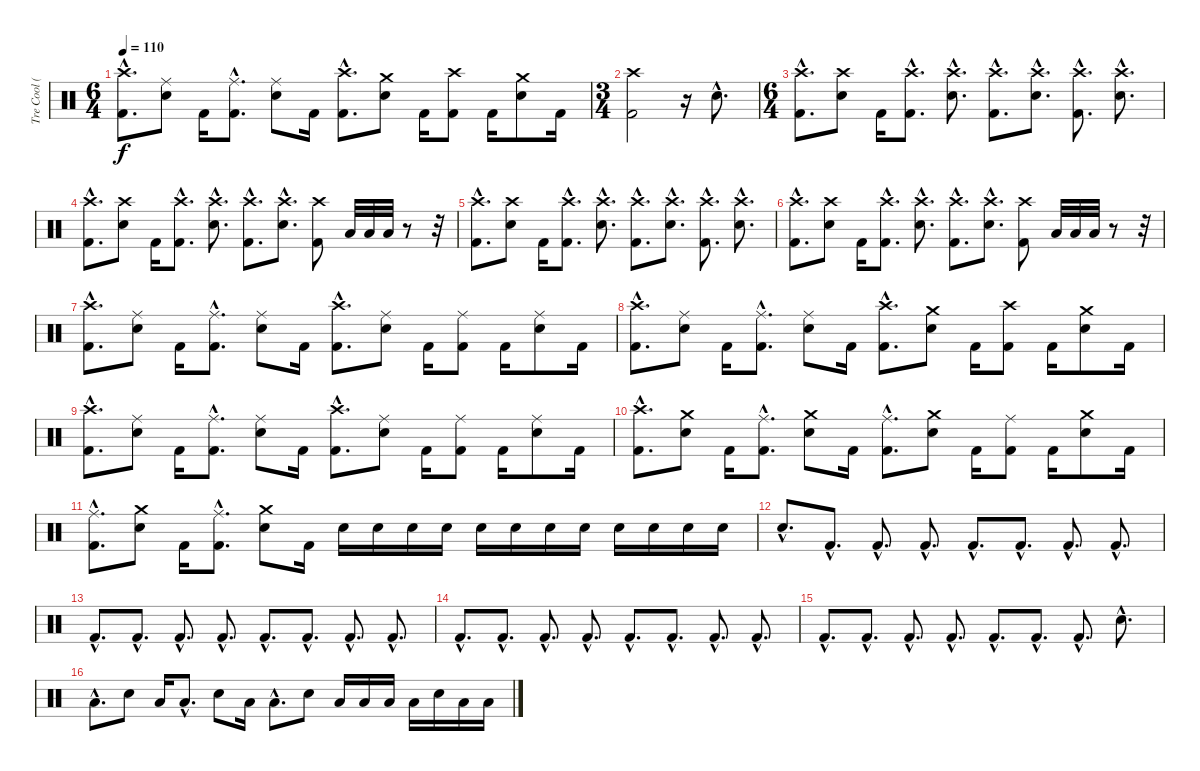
\track ("Tre Cool (Drums)" "Tre Cool (") {instrument percussion}
\staff {score}
\articulation defaults
\ts (6 4)
\tempo 110
\clef neutral
\ks c
("Crash high (hit)"{hac} "Kick (hit) 2"{hac}).8{d dy f} ("Ride (middle)" "Electric Snare (hit)").8 "Kick (hit) 2".16 ("Ride (middle)"{hac} "Kick (hit) 2"{hac}).8{d} ("Ride (middle)" "Electric Snare (hit)").8 "Kick (hit) 2".16 ("Crash high (hit)"{hac} "Kick (hit) 2"{hac}).8{d} ("Crash medium (hit)" "Electric Snare (hit)").8 "Kick (hit) 2".16 ("Crash high (hit)" "Kick (hit) 2").8 "Kick (hit) 2".16 ("Crash medium (hit)" "Electric Snare (hit)").8 "Kick (hit) 2".16 |
\ts (3 4)
("Crash high (hit)" "Kick (hit) 2").2 r.16 "Electric Snare (hit)"{hac}.8{d} |
\ts (6 4)
("Crash high (hit)"{hac} "Kick (hit) 2"{hac}).8{d} ("Crash high (hit)" "Electric Snare (hit)").8 "Kick (hit) 2".16 ("Crash high (hit)"{hac} "Kick (hit) 2"{hac}).8{d} ("Crash high (hit)"{hac} "Electric Snare (hit)"{hac}).8{d} ("Crash high (hit)"{hac} "Kick (hit) 2"{hac}).8{d} ("Crash high (hit)"{hac} "Electric Snare (hit)"{hac}).8{d} ("Crash high (hit)"{hac} "Kick (hit) 2"{hac}).8{d} ("Crash high (hit)"{hac} "Electric Snare (hit)"{hac}).8{d} |
("Crash high (hit)"{hac} "Kick (hit) 2"{hac}).8{d} ("Crash high (hit)" "Electric Snare (hit)").8 "Kick (hit) 2".16 ("Crash high (hit)"{hac} "Kick (hit) 2"{hac}).8{d} ("Crash high (hit)"{hac} "Electric Snare (hit)"{hac}).8{d} ("Crash high (hit)"{hac} "Kick (hit) 2"{hac}).8{d} ("Crash high (hit)"{hac} "Electric Snare (hit)"{hac}).8{d} ("Crash high (hit)" "Kick (hit) 2").8 "Low Floor Tom (hit)".32 "Low Floor Tom (hit)".32 "Low Floor Tom (hit)".32 r.8 r.32 |
("Crash high (hit)"{hac} "Kick (hit) 2"{hac}).8{d} ("Crash high (hit)" "Electric Snare (hit)").8 "Kick (hit) 2".16 ("Crash high (hit)"{hac} "Kick (hit) 2"{hac}).8{d} ("Crash high (hit)"{hac} "Electric Snare (hit)"{hac}).8{d} ("Crash high (hit)"{hac} "Kick (hit) 2"{hac}).8{d} ("Crash high (hit)"{hac} "Electric Snare (hit)"{hac}).8{d} ("Crash high (hit)"{hac} "Kick (hit) 2"{hac}).8{d} ("Crash high (hit)"{hac} "Electric Snare (hit)"{hac}).8{d} |
("Crash high (hit)"{hac} "Kick (hit) 2"{hac}).8{d} ("Crash high (hit)" "Electric Snare (hit)").8 "Kick (hit) 2".16 ("Crash high (hit)"{hac} "Kick (hit) 2"{hac}).8{d} ("Crash high (hit)"{hac} "Electric Snare (hit)"{hac}).8{d} ("Crash high (hit)"{hac} "Kick (hit) 2"{hac}).8{d} ("Crash high (hit)"{hac} "Electric Snare (hit)"{hac}).8{d} ("Crash high (hit)" "Kick (hit) 2").8 "Low Floor Tom (hit)".32 "Low Floor Tom (hit)".32 "Low Floor Tom (hit)".32 r.8 r.32 |
("Crash high (hit)"{hac} "Kick (hit) 2"{hac}).8{d} ("Ride (middle)" "Electric Snare (hit)").8 "Kick (hit) 2".16 ("Ride (middle)"{hac} "Kick (hit) 2"{hac}).8{d} ("Ride (middle)" "Electric Snare (hit)").8 "Kick (hit) 2".16 ("Crash high (hit)"{hac} "Kick (hit) 2"{hac}).8{d} ("Ride (middle)" "Electric Snare (hit)").8 "Kick (hit) 2".16 ("Ride (middle)" "Kick (hit) 2").8 "Kick (hit) 2".16 ("Ride (middle)" "Electric Snare (hit)").8 "Kick (hit) 2".16 |
("Crash high (hit)"{hac} "Kick (hit) 2"{hac}).8{d} ("Ride (middle)" "Electric Snare (hit)").8 "Kick (hit) 2".16 ("Ride (middle)"{hac} "Kick (hit) 2"{hac}).8{d} ("Ride (middle)" "Electric Snare (hit)").8 "Kick (hit) 2".16 ("Crash high (hit)"{hac} "Kick (hit) 2"{hac}).8{d} ("Crash medium (hit)" "Electric Snare (hit)").8 "Kick (hit) 2".16 ("Crash high (hit)" "Kick (hit) 2").8 "Kick (hit) 2".16 ("Crash medium (hit)" "Electric Snare (hit)").8 "Kick (hit) 2".16 |
("Crash high (hit)"{hac} "Kick (hit) 2"{hac}).8{d} ("Ride (middle)" "Electric Snare (hit)").8 "Kick (hit) 2".16 ("Ride (middle)"{hac} "Kick (hit) 2"{hac}).8{d} ("Ride (middle)" "Electric Snare (hit)").8 "Kick (hit) 2".16 ("Crash high (hit)"{hac} "Kick (hit) 2"{hac}).8{d} ("Ride (middle)" "Electric Snare (hit)").8 "Kick (hit) 2".16 ("Ride (middle)" "Kick (hit) 2").8 "Kick (hit) 2".16 ("Ride (middle)" "Electric Snare (hit)").8 "Kick (hit) 2".16 |
("Crash high (hit)"{hac} "Kick (hit) 2"{hac}).8{d} ("Crash medium (hit)" "Electric Snare (hit)").8 "Kick (hit) 2".16 ("Ride (middle)"{hac} "Kick (hit) 2"{hac}).8{d} ("Crash medium (hit)" "Electric Snare (hit)").8 "Kick (hit) 2".16 ("Ride (middle)"{hac} "Kick (hit) 2"{hac}).8{d} ("Crash medium (hit)" "Electric Snare (hit)").8 "Kick (hit) 2".16 ("Ride (middle)" "Kick (hit) 2").8 "Kick (hit) 2".16 ("Crash medium (hit)" "Electric Snare (hit)").8 "Kick (hit) 2".16 |
("Ride (middle)"{hac} "Kick (hit) 2"{hac}).8{d} ("Crash medium (hit)" "Electric Snare (hit)").8 "Kick (hit) 2".16 ("Ride (middle)"{hac} "Kick (hit) 2"{hac}).8{d} ("Crash medium (hit)" "Electric Snare (hit)").8 "Kick (hit) 2".16 "Electric Snare (hit)".16 "Electric Snare (hit)".16 "Electric Snare (hit)".16 "Electric Snare (hit)".16 "Electric Snare (hit)".16 "Electric Snare (hit)".16 "Electric Snare (hit)".16 "Electric Snare (hit)".16 "Electric Snare (hit)".16 "Electric Snare (hit)".16 "Electric Snare (hit)".16 "Electric Snare (hit)".16 |
"Electric Snare (hit)"{hac}.8{d} "Kick (hit) 2"{hac}.8{d} "Kick (hit) 2"{hac}.8{d} "Kick (hit) 2"{hac}.8{d} "Kick (hit) 2"{hac}.8{d} "Kick (hit) 2"{hac}.8{d} "Kick (hit) 2"{hac}.8{d} "Kick (hit) 2"{hac}.8{d} |
"Kick (hit) 2"{hac}.8{d} "Kick (hit) 2"{hac}.8{d} "Kick (hit) 2"{hac}.8{d} "Kick (hit) 2"{hac}.8{d} "Kick (hit) 2"{hac}.8{d} "Kick (hit) 2"{hac}.8{d} "Kick (hit) 2"{hac}.8{d} "Kick (hit) 2"{hac}.8{d} |
"Kick (hit) 2"{hac}.8{d} "Kick (hit) 2"{hac}.8{d} "Kick (hit) 2"{hac}.8{d} "Kick (hit) 2"{hac}.8{d} "Kick (hit) 2"{hac}.8{d} "Kick (hit) 2"{hac}.8{d} "Kick (hit) 2"{hac}.8{d} "Kick (hit) 2"{hac}.8{d} |
"Kick (hit) 2"{hac}.8{d} "Kick (hit) 2"{hac}.8{d} "Kick (hit) 2"{hac}.8{d} "Kick (hit) 2"{hac}.8{d} "Kick (hit) 2"{hac}.8{d} "Kick (hit) 2"{hac}.8{d} "Kick (hit) 2"{hac}.8{d} "Electric Snare (hit)"{hac}.8{d} |
"Low Floor Tom (hit)"{hac}.8{d} "Electric Snare (hit)".8 "Low Floor Tom (hit)".16 "Low Floor Tom (hit)"{hac}.8{d} "Electric Snare (hit)".8 "Low Floor Tom (hit)".16 "Low Floor Tom (hit)"{hac}.8{d} "Electric Snare (hit)".8 "Low Floor Tom (hit)".16 "Low Floor Tom (hit)".16 "Low Floor Tom (hit)".16 "Low Floor Tom (hit)".16 "Electric Snare (hit)".16 "Low Floor Tom (hit)".16 "Low Floor Tom (hit)".16
